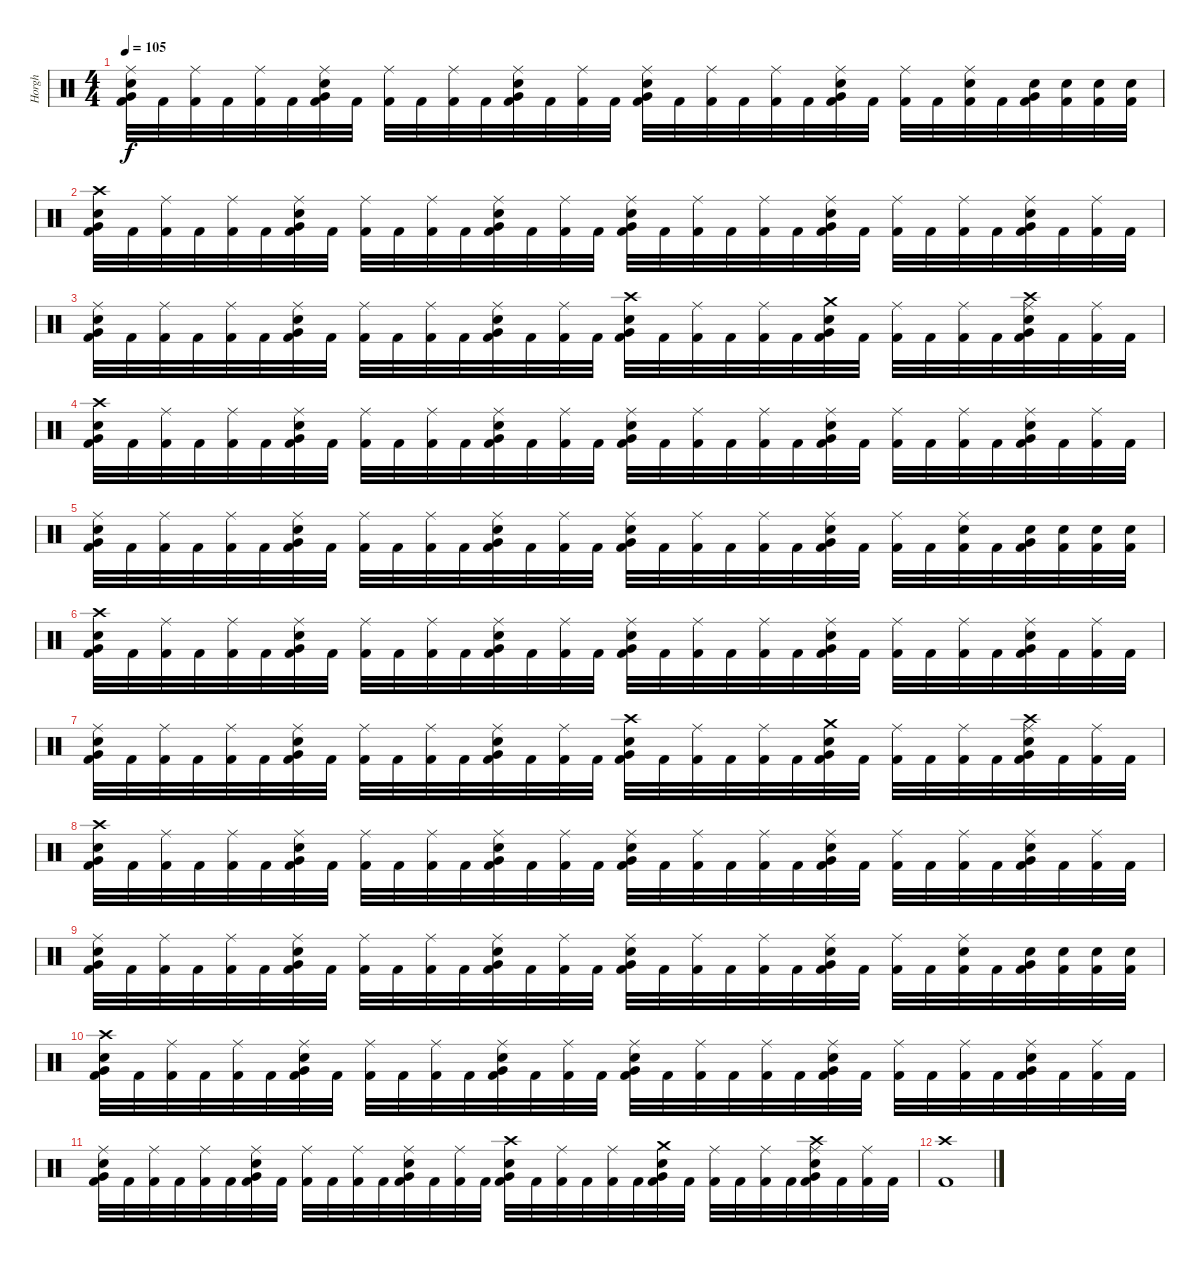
\track ("Horgh" "Horgh") {instrument percussion}
\staff {score}
\articulation defaults
\ts (4 4)
\tempo 105
\clef neutral
\ks c
("Ride (middle)" "Electric Snare (hit)" "Very Low Tom (hit)" "Kick (hit) 2").32{dy f} "Kick (hit) 2".32 ("Ride (middle)" "Kick (hit) 2").32 "Kick (hit) 2".32 ("Ride (middle)" "Kick (hit) 2").32 "Kick (hit) 2".32 ("Ride (middle)" "Electric Snare (hit)" "Very Low Tom (hit)" "Kick (hit) 2").32 "Kick (hit) 2".32 ("Ride (middle)" "Kick (hit) 2").32 "Kick (hit) 2".32 ("Ride (middle)" "Kick (hit) 2").32 "Kick (hit) 2".32 ("Ride (middle)" "Electric Snare (hit)" "Very Low Tom (hit)" "Kick (hit) 2").32 "Kick (hit) 2".32 ("Ride (middle)" "Kick (hit) 2").32 "Kick (hit) 2".32 ("Ride (middle)" "Electric Snare (hit)" "Very Low Tom (hit)" "Kick (hit) 2").32 "Kick (hit) 2".32 ("Ride (middle)" "Kick (hit) 2").32 "Kick (hit) 2".32 ("Ride (middle)" "Kick (hit) 2").32 "Kick (hit) 2".32 ("Ride (middle)" "Electric Snare (hit)" "Very Low Tom (hit)" "Kick (hit) 2").32 "Kick (hit) 2".32 ("Ride (middle)" "Kick (hit) 2").32 "Kick (hit) 2".32 ("Ride (middle)" "Electric Snare (hit)" "Kick (hit) 2").32 "Kick (hit) 2".32 ("Electric Snare (hit)" "Very Low Tom (hit)" "Kick (hit) 2").32 ("Electric Snare (hit)" "Kick (hit) 2").32 ("Electric Snare (hit)" "Kick (hit) 2").32 ("Electric Snare (hit)" "Kick (hit) 2").32 |
("Crash high (hit)" "Electric Snare (hit)" "Very Low Tom (hit)" "Kick (hit) 2").32 "Kick (hit) 2".32 ("Ride (middle)" "Kick (hit) 2").32 "Kick (hit) 2".32 ("Ride (middle)" "Kick (hit) 2").32 "Kick (hit) 2".32 ("Ride (middle)" "Electric Snare (hit)" "Very Low Tom (hit)" "Kick (hit) 2").32 "Kick (hit) 2".32 ("Ride (middle)" "Kick (hit) 2").32 "Kick (hit) 2".32 ("Ride (middle)" "Kick (hit) 2").32 "Kick (hit) 2".32 ("Ride (middle)" "Electric Snare (hit)" "Very Low Tom (hit)" "Kick (hit) 2").32 "Kick (hit) 2".32 ("Ride (middle)" "Kick (hit) 2").32 "Kick (hit) 2".32 ("Ride (middle)" "Electric Snare (hit)" "Very Low Tom (hit)" "Kick (hit) 2").32 "Kick (hit) 2".32 ("Ride (middle)" "Kick (hit) 2").32 "Kick (hit) 2".32 ("Ride (middle)" "Kick (hit) 2").32 "Kick (hit) 2".32 ("Ride (middle)" "Electric Snare (hit)" "Very Low Tom (hit)" "Kick (hit) 2").32 "Kick (hit) 2".32 ("Ride (middle)" "Kick (hit) 2").32 "Kick (hit) 2".32 ("Ride (middle)" "Kick (hit) 2").32 "Kick (hit) 2".32 ("Ride (middle)" "Electric Snare (hit)" "Very Low Tom (hit)" "Kick (hit) 2").32 "Kick (hit) 2".32 ("Ride (middle)" "Kick (hit) 2").32 "Kick (hit) 2".32 |
("Ride (middle)" "Electric Snare (hit)" "Very Low Tom (hit)" "Kick (hit) 2").32 "Kick (hit) 2".32 ("Ride (middle)" "Kick (hit) 2").32 "Kick (hit) 2".32 ("Ride (middle)" "Kick (hit) 2").32 "Kick (hit) 2".32 ("Ride (middle)" "Electric Snare (hit)" "Very Low Tom (hit)" "Kick (hit) 2").32 "Kick (hit) 2".32 ("Ride (middle)" "Kick (hit) 2").32 "Kick (hit) 2".32 ("Ride (middle)" "Kick (hit) 2").32 "Kick (hit) 2".32 ("Ride (middle)" "Electric Snare (hit)" "Very Low Tom (hit)" "Kick (hit) 2").32 "Kick (hit) 2".32 ("Ride (middle)" "Kick (hit) 2").32 "Kick (hit) 2".32 ("Crash high (hit)" "Electric Snare (hit)" "Very Low Tom (hit)" "Kick (hit) 2").32 "Kick (hit) 2".32 ("Ride (middle)" "Kick (hit) 2").32 "Kick (hit) 2".32 ("Ride (middle)" "Kick (hit) 2").32 "Kick (hit) 2".32 ("Crash medium (hit)" "Electric Snare (hit)" "Very Low Tom (hit)" "Kick (hit) 2").32 "Kick (hit) 2".32 ("Ride (middle)" "Kick (hit) 2").32 "Kick (hit) 2".32 ("Ride (middle)" "Kick (hit) 2").32 "Kick (hit) 2".32 ("Crash high (hit)" "Ride (middle)" "Electric Snare (hit)" "Very Low Tom (hit)" "Kick (hit) 2").32 "Kick (hit) 2".32 ("Ride (middle)" "Kick (hit) 2").32 "Kick (hit) 2".32 |
("Crash high (hit)" "Electric Snare (hit)" "Very Low Tom (hit)" "Kick (hit) 2").32 "Kick (hit) 2".32 ("Ride (middle)" "Kick (hit) 2").32 "Kick (hit) 2".32 ("Ride (middle)" "Kick (hit) 2").32 "Kick (hit) 2".32 ("Ride (middle)" "Electric Snare (hit)" "Very Low Tom (hit)" "Kick (hit) 2").32 "Kick (hit) 2".32 ("Ride (middle)" "Kick (hit) 2").32 "Kick (hit) 2".32 ("Ride (middle)" "Kick (hit) 2").32 "Kick (hit) 2".32 ("Ride (middle)" "Electric Snare (hit)" "Very Low Tom (hit)" "Kick (hit) 2").32 "Kick (hit) 2".32 ("Ride (middle)" "Kick (hit) 2").32 "Kick (hit) 2".32 ("Ride (middle)" "Electric Snare (hit)" "Very Low Tom (hit)" "Kick (hit) 2").32 "Kick (hit) 2".32 ("Ride (middle)" "Kick (hit) 2").32 "Kick (hit) 2".32 ("Ride (middle)" "Kick (hit) 2").32 "Kick (hit) 2".32 ("Ride (middle)" "Electric Snare (hit)" "Very Low Tom (hit)" "Kick (hit) 2").32 "Kick (hit) 2".32 ("Ride (middle)" "Kick (hit) 2").32 "Kick (hit) 2".32 ("Ride (middle)" "Kick (hit) 2").32 "Kick (hit) 2".32 ("Ride (middle)" "Electric Snare (hit)" "Very Low Tom (hit)" "Kick (hit) 2").32 "Kick (hit) 2".32 ("Ride (middle)" "Kick (hit) 2").32 "Kick (hit) 2".32 |
("Ride (middle)" "Electric Snare (hit)" "Very Low Tom (hit)" "Kick (hit) 2").32 "Kick (hit) 2".32 ("Ride (middle)" "Kick (hit) 2").32 "Kick (hit) 2".32 ("Ride (middle)" "Kick (hit) 2").32 "Kick (hit) 2".32 ("Ride (middle)" "Electric Snare (hit)" "Very Low Tom (hit)" "Kick (hit) 2").32 "Kick (hit) 2".32 ("Ride (middle)" "Kick (hit) 2").32 "Kick (hit) 2".32 ("Ride (middle)" "Kick (hit) 2").32 "Kick (hit) 2".32 ("Ride (middle)" "Electric Snare (hit)" "Very Low Tom (hit)" "Kick (hit) 2").32 "Kick (hit) 2".32 ("Ride (middle)" "Kick (hit) 2").32 "Kick (hit) 2".32 ("Ride (middle)" "Electric Snare (hit)" "Very Low Tom (hit)" "Kick (hit) 2").32 "Kick (hit) 2".32 ("Ride (middle)" "Kick (hit) 2").32 "Kick (hit) 2".32 ("Ride (middle)" "Kick (hit) 2").32 "Kick (hit) 2".32 ("Ride (middle)" "Electric Snare (hit)" "Very Low Tom (hit)" "Kick (hit) 2").32 "Kick (hit) 2".32 ("Ride (middle)" "Kick (hit) 2").32 "Kick (hit) 2".32 ("Ride (middle)" "Electric Snare (hit)" "Kick (hit) 2").32 "Kick (hit) 2".32 ("Electric Snare (hit)" "Very Low Tom (hit)" "Kick (hit) 2").32 ("Electric Snare (hit)" "Kick (hit) 2").32 ("Electric Snare (hit)" "Kick (hit) 2").32 ("Electric Snare (hit)" "Kick (hit) 2").32 |
("Crash high (hit)" "Electric Snare (hit)" "Very Low Tom (hit)" "Kick (hit) 2").32 "Kick (hit) 2".32 ("Ride (middle)" "Kick (hit) 2").32 "Kick (hit) 2".32 ("Ride (middle)" "Kick (hit) 2").32 "Kick (hit) 2".32 ("Ride (middle)" "Electric Snare (hit)" "Very Low Tom (hit)" "Kick (hit) 2").32 "Kick (hit) 2".32 ("Ride (middle)" "Kick (hit) 2").32 "Kick (hit) 2".32 ("Ride (middle)" "Kick (hit) 2").32 "Kick (hit) 2".32 ("Ride (middle)" "Electric Snare (hit)" "Very Low Tom (hit)" "Kick (hit) 2").32 "Kick (hit) 2".32 ("Ride (middle)" "Kick (hit) 2").32 "Kick (hit) 2".32 ("Ride (middle)" "Electric Snare (hit)" "Very Low Tom (hit)" "Kick (hit) 2").32 "Kick (hit) 2".32 ("Ride (middle)" "Kick (hit) 2").32 "Kick (hit) 2".32 ("Ride (middle)" "Kick (hit) 2").32 "Kick (hit) 2".32 ("Ride (middle)" "Electric Snare (hit)" "Very Low Tom (hit)" "Kick (hit) 2").32 "Kick (hit) 2".32 ("Ride (middle)" "Kick (hit) 2").32 "Kick (hit) 2".32 ("Ride (middle)" "Kick (hit) 2").32 "Kick (hit) 2".32 ("Ride (middle)" "Electric Snare (hit)" "Very Low Tom (hit)" "Kick (hit) 2").32 "Kick (hit) 2".32 ("Ride (middle)" "Kick (hit) 2").32 "Kick (hit) 2".32 |
("Ride (middle)" "Electric Snare (hit)" "Very Low Tom (hit)" "Kick (hit) 2").32 "Kick (hit) 2".32 ("Ride (middle)" "Kick (hit) 2").32 "Kick (hit) 2".32 ("Ride (middle)" "Kick (hit) 2").32 "Kick (hit) 2".32 ("Ride (middle)" "Electric Snare (hit)" "Very Low Tom (hit)" "Kick (hit) 2").32 "Kick (hit) 2".32 ("Ride (middle)" "Kick (hit) 2").32 "Kick (hit) 2".32 ("Ride (middle)" "Kick (hit) 2").32 "Kick (hit) 2".32 ("Ride (middle)" "Electric Snare (hit)" "Very Low Tom (hit)" "Kick (hit) 2").32 "Kick (hit) 2".32 ("Ride (middle)" "Kick (hit) 2").32 "Kick (hit) 2".32 ("Crash high (hit)" "Electric Snare (hit)" "Very Low Tom (hit)" "Kick (hit) 2").32 "Kick (hit) 2".32 ("Ride (middle)" "Kick (hit) 2").32 "Kick (hit) 2".32 ("Ride (middle)" "Kick (hit) 2").32 "Kick (hit) 2".32 ("Crash medium (hit)" "Electric Snare (hit)" "Very Low Tom (hit)" "Kick (hit) 2").32 "Kick (hit) 2".32 ("Ride (middle)" "Kick (hit) 2").32 "Kick (hit) 2".32 ("Ride (middle)" "Kick (hit) 2").32 "Kick (hit) 2".32 ("Crash high (hit)" "Ride (middle)" "Electric Snare (hit)" "Very Low Tom (hit)" "Kick (hit) 2").32 "Kick (hit) 2".32 ("Ride (middle)" "Kick (hit) 2").32 "Kick (hit) 2".32 |
("Crash high (hit)" "Electric Snare (hit)" "Very Low Tom (hit)" "Kick (hit) 2").32 "Kick (hit) 2".32 ("Ride (middle)" "Kick (hit) 2").32 "Kick (hit) 2".32 ("Ride (middle)" "Kick (hit) 2").32 "Kick (hit) 2".32 ("Ride (middle)" "Electric Snare (hit)" "Very Low Tom (hit)" "Kick (hit) 2").32 "Kick (hit) 2".32 ("Ride (middle)" "Kick (hit) 2").32 "Kick (hit) 2".32 ("Ride (middle)" "Kick (hit) 2").32 "Kick (hit) 2".32 ("Ride (middle)" "Electric Snare (hit)" "Very Low Tom (hit)" "Kick (hit) 2").32 "Kick (hit) 2".32 ("Ride (middle)" "Kick (hit) 2").32 "Kick (hit) 2".32 ("Ride (middle)" "Electric Snare (hit)" "Very Low Tom (hit)" "Kick (hit) 2").32 "Kick (hit) 2".32 ("Ride (middle)" "Kick (hit) 2").32 "Kick (hit) 2".32 ("Ride (middle)" "Kick (hit) 2").32 "Kick (hit) 2".32 ("Ride (middle)" "Electric Snare (hit)" "Very Low Tom (hit)" "Kick (hit) 2").32 "Kick (hit) 2".32 ("Ride (middle)" "Kick (hit) 2").32 "Kick (hit) 2".32 ("Ride (middle)" "Kick (hit) 2").32 "Kick (hit) 2".32 ("Ride (middle)" "Electric Snare (hit)" "Very Low Tom (hit)" "Kick (hit) 2").32 "Kick (hit) 2".32 ("Ride (middle)" "Kick (hit) 2").32 "Kick (hit) 2".32 |
("Ride (middle)" "Electric Snare (hit)" "Very Low Tom (hit)" "Kick (hit) 2").32 "Kick (hit) 2".32 ("Ride (middle)" "Kick (hit) 2").32 "Kick (hit) 2".32 ("Ride (middle)" "Kick (hit) 2").32 "Kick (hit) 2".32 ("Ride (middle)" "Electric Snare (hit)" "Very Low Tom (hit)" "Kick (hit) 2").32 "Kick (hit) 2".32 ("Ride (middle)" "Kick (hit) 2").32 "Kick (hit) 2".32 ("Ride (middle)" "Kick (hit) 2").32 "Kick (hit) 2".32 ("Ride (middle)" "Electric Snare (hit)" "Very Low Tom (hit)" "Kick (hit) 2").32 "Kick (hit) 2".32 ("Ride (middle)" "Kick (hit) 2").32 "Kick (hit) 2".32 ("Ride (middle)" "Electric Snare (hit)" "Very Low Tom (hit)" "Kick (hit) 2").32 "Kick (hit) 2".32 ("Ride (middle)" "Kick (hit) 2").32 "Kick (hit) 2".32 ("Ride (middle)" "Kick (hit) 2").32 "Kick (hit) 2".32 ("Ride (middle)" "Electric Snare (hit)" "Very Low Tom (hit)" "Kick (hit) 2").32 "Kick (hit) 2".32 ("Ride (middle)" "Kick (hit) 2").32 "Kick (hit) 2".32 ("Ride (middle)" "Electric Snare (hit)" "Kick (hit) 2").32 "Kick (hit) 2".32 ("Electric Snare (hit)" "Very Low Tom (hit)" "Kick (hit) 2").32 ("Electric Snare (hit)" "Kick (hit) 2").32 ("Electric Snare (hit)" "Kick (hit) 2").32 ("Electric Snare (hit)" "Kick (hit) 2").32 |
("Crash high (hit)" "Electric Snare (hit)" "Very Low Tom (hit)" "Kick (hit) 2").32 "Kick (hit) 2".32 ("Ride (middle)" "Kick (hit) 2").32 "Kick (hit) 2".32 ("Ride (middle)" "Kick (hit) 2").32 "Kick (hit) 2".32 ("Ride (middle)" "Electric Snare (hit)" "Very Low Tom (hit)" "Kick (hit) 2").32 "Kick (hit) 2".32 ("Ride (middle)" "Kick (hit) 2").32 "Kick (hit) 2".32 ("Ride (middle)" "Kick (hit) 2").32 "Kick (hit) 2".32 ("Ride (middle)" "Electric Snare (hit)" "Very Low Tom (hit)" "Kick (hit) 2").32 "Kick (hit) 2".32 ("Ride (middle)" "Kick (hit) 2").32 "Kick (hit) 2".32 ("Ride (middle)" "Electric Snare (hit)" "Very Low Tom (hit)" "Kick (hit) 2").32 "Kick (hit) 2".32 ("Ride (middle)" "Kick (hit) 2").32 "Kick (hit) 2".32 ("Ride (middle)" "Kick (hit) 2").32 "Kick (hit) 2".32 ("Ride (middle)" "Electric Snare (hit)" "Very Low Tom (hit)" "Kick (hit) 2").32 "Kick (hit) 2".32 ("Ride (middle)" "Kick (hit) 2").32 "Kick (hit) 2".32 ("Ride (middle)" "Kick (hit) 2").32 "Kick (hit) 2".32 ("Ride (middle)" "Electric Snare (hit)" "Very Low Tom (hit)" "Kick (hit) 2").32 "Kick (hit) 2".32 ("Ride (middle)" "Kick (hit) 2").32 "Kick (hit) 2".32 |
("Ride (middle)" "Electric Snare (hit)" "Very Low Tom (hit)" "Kick (hit) 2").32 "Kick (hit) 2".32 ("Ride (middle)" "Kick (hit) 2").32 "Kick (hit) 2".32 ("Ride (middle)" "Kick (hit) 2").32 "Kick (hit) 2".32 ("Ride (middle)" "Electric Snare (hit)" "Very Low Tom (hit)" "Kick (hit) 2").32 "Kick (hit) 2".32 ("Ride (middle)" "Kick (hit) 2").32 "Kick (hit) 2".32 ("Ride (middle)" "Kick (hit) 2").32 "Kick (hit) 2".32 ("Ride (middle)" "Electric Snare (hit)" "Very Low Tom (hit)" "Kick (hit) 2").32 "Kick (hit) 2".32 ("Ride (middle)" "Kick (hit) 2").32 "Kick (hit) 2".32 ("Crash high (hit)" "Electric Snare (hit)" "Very Low Tom (hit)" "Kick (hit) 2").32 "Kick (hit) 2".32 ("Ride (middle)" "Kick (hit) 2").32 "Kick (hit) 2".32 ("Ride (middle)" "Kick (hit) 2").32 "Kick (hit) 2".32 ("Crash medium (hit)" "Electric Snare (hit)" "Very Low Tom (hit)" "Kick (hit) 2").32 "Kick (hit) 2".32 ("Ride (middle)" "Kick (hit) 2").32 "Kick (hit) 2".32 ("Ride (middle)" "Kick (hit) 2").32 "Kick (hit) 2".32 ("Crash high (hit)" "Ride (middle)" "Electric Snare (hit)" "Very Low Tom (hit)" "Kick (hit) 2").32 "Kick (hit) 2".32 ("Ride (middle)" "Kick (hit) 2").32 "Kick (hit) 2".32 |
("Crash high (hit)" "Kick (hit) 2").1
